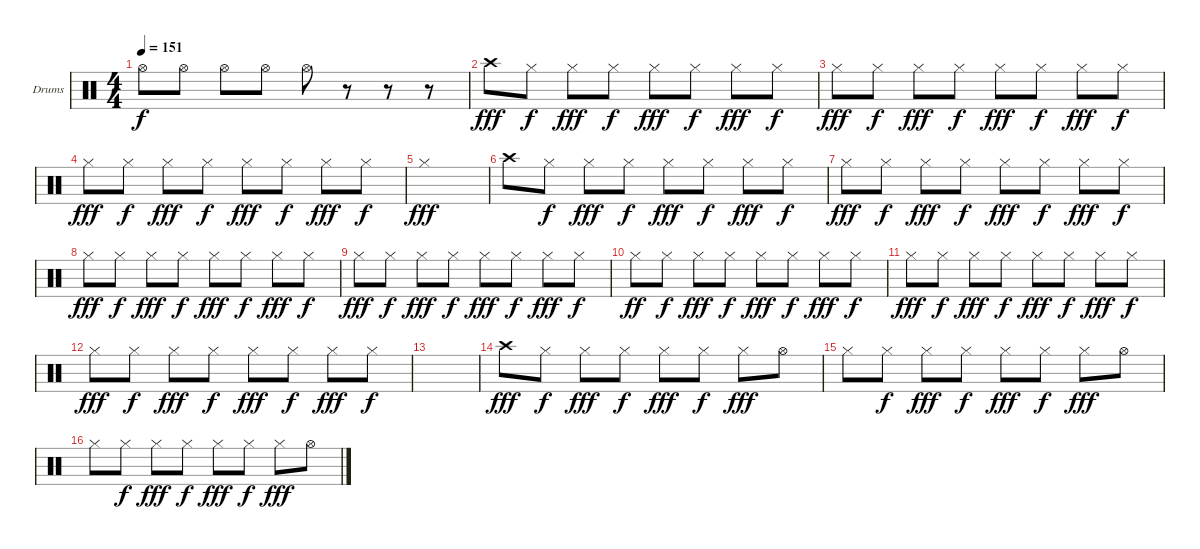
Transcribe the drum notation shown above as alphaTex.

\defaultSystemsLayout 4
\bracketExtendMode groupsimilarinstruments
\firstSystemTrackNameOrientation horizontal
\otherSystemsTrackNameOrientation horizontal
\track ("Helders" "Drums") {instrument percussion}
\staff {score}
\articulation defaults
\ts (4 4)
\tempo 151
\clef neutral
\ks c "Hi-Hat (open)".8{dy f} "Hi-Hat (open)".8 "Hi-Hat (open)".8 "Hi-Hat (open)".8 "Hi-Hat (open)".8
r.8 r.8 r.8 |
"Crash high (hit)".8{dy fff} "Hi-Hat (closed)".8{dy f} "Hi-Hat (closed)".8{dy fff} "Hi-Hat (closed)".8{dy f} "Hi-Hat (closed)".8{dy fff} "Hi-Hat (closed)".8{dy f} "Hi-Hat (closed)".8{dy fff} "Hi-Hat (closed)".8{dy f} |
"Hi-Hat (closed)".8{dy fff} "Hi-Hat (closed)".8{dy f} "Hi-Hat (closed)".8{dy fff} "Hi-Hat (closed)".8{dy f} "Hi-Hat (closed)".8{dy fff} "Hi-Hat (closed)".8{dy f} "Hi-Hat (closed)".8{dy fff} "Hi-Hat (closed)".8{dy f} |
"Hi-Hat (closed)".8{dy fff} "Hi-Hat (closed)".8{dy f} "Hi-Hat (closed)".8{dy fff} "Hi-Hat (closed)".8{dy f} "Hi-Hat (closed)".8{dy fff} "Hi-Hat (closed)".8{dy f} "Hi-Hat (closed)".8{dy fff} "Hi-Hat (closed)".8{dy f} |
"Hi-Hat (closed)".1{dy fff} |
"Crash high (hit)".8 "Hi-Hat (closed)".8{dy f} "Hi-Hat (closed)".8{dy fff} "Hi-Hat (closed)".8{dy f} "Hi-Hat (closed)".8{dy fff} "Hi-Hat (closed)".8{dy f} "Hi-Hat (closed)".8{dy fff} "Hi-Hat (closed)".8{dy f} |
"Hi-Hat (closed)".8{dy fff} "Hi-Hat (closed)".8{dy f} "Hi-Hat (closed)".8{dy fff} "Hi-Hat (closed)".8{dy f} "Hi-Hat (closed)".8{dy fff} "Hi-Hat (closed)".8{dy f} "Hi-Hat (closed)".8{dy fff} "Hi-Hat (closed)".8{dy f} |
"Hi-Hat (closed)".8{dy fff} "Hi-Hat (closed)".8{dy f} "Hi-Hat (closed)".8{dy fff} "Hi-Hat (closed)".8{dy f} "Hi-Hat (closed)".8{dy fff} "Hi-Hat (closed)".8{dy f} "Hi-Hat (closed)".8{dy fff} "Hi-Hat (closed)".8{dy f} |
"Hi-Hat (closed)".8{dy fff} "Hi-Hat (closed)".8{dy f} "Hi-Hat (closed)".8{dy fff} "Hi-Hat (closed)".8{dy f} "Hi-Hat (closed)".8{dy fff} "Hi-Hat (closed)".8{dy f} "Hi-Hat (closed)".8{dy fff} "Hi-Hat (closed)".8{dy f} |
"Hi-Hat (closed)".8{dy ff} "Hi-Hat (closed)".8{dy f} "Hi-Hat (closed)".8{dy fff} "Hi-Hat (closed)".8{dy f} "Hi-Hat (closed)".8{dy fff} "Hi-Hat (closed)".8{dy f} "Hi-Hat (closed)".8{dy fff} "Hi-Hat (closed)".8{dy f} |
"Hi-Hat (closed)".8{dy fff} "Hi-Hat (closed)".8{dy f} "Hi-Hat (closed)".8{dy fff} "Hi-Hat (closed)".8{dy f} "Hi-Hat (closed)".8{dy fff} "Hi-Hat (closed)".8{dy f} "Hi-Hat (closed)".8{dy fff} "Hi-Hat (closed)".8{dy f} |
"Hi-Hat (closed)".8{dy fff} "Hi-Hat (closed)".8{dy f} "Hi-Hat (closed)".8{dy fff} "Hi-Hat (closed)".8{dy f} "Hi-Hat (closed)".8{dy fff} "Hi-Hat (closed)".8{dy f} "Hi-Hat (closed)".8{dy fff} "Hi-Hat (closed)".8{dy f} |
|
"Crash high (hit)".8{dy fff} "Hi-Hat (closed)".8{dy f} "Hi-Hat (closed)".8{dy fff} "Hi-Hat (closed)".8{dy f} "Hi-Hat (closed)".8{dy fff} "Hi-Hat (closed)".8{dy f} "Hi-Hat (closed)".8{dy fff} "Hi-Hat (open)".8 |
"Hi-Hat (closed)".8 "Hi-Hat (closed)".8{dy f} "Hi-Hat (closed)".8{dy fff} "Hi-Hat (closed)".8{dy f} "Hi-Hat (closed)".8{dy fff} "Hi-Hat (closed)".8{dy f} "Hi-Hat (closed)".8{dy fff} "Hi-Hat (open)".8 |
"Hi-Hat (closed)".8 "Hi-Hat (closed)".8{dy f} "Hi-Hat (closed)".8{dy fff} "Hi-Hat (closed)".8{dy f} "Hi-Hat (closed)".8{dy fff} "Hi-Hat (closed)".8{dy f} "Hi-Hat (closed)".8{dy fff} "Hi-Hat (open)".8
